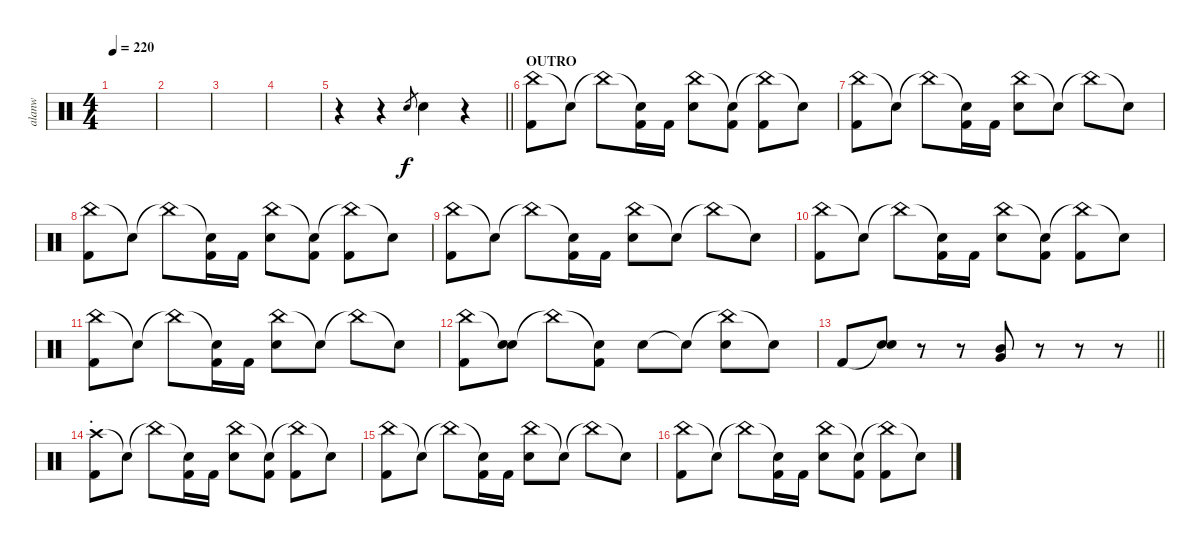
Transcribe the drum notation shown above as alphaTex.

\track ("alanw" "alanw") {instrument percussion}
\staff {score}
\articulation defaults
\ts (4 4)
\tempo 220
\clef neutral
\ks c
|
|
|
|
\barLineRight lightlight
r.4 r.4 "Electric Snare (hit)".8{gr} "Electric Snare (hit)".4 r.4 |
\section ("" "OUTRO")
("China (hit)" "Kick (hit) 2").8 "Snare (hit)"{t}.8 "China (hit)"{t}.8 ("Snare (hit)"{t} "Kick (hit) 2").16 "Kick (hit) 2".16 ("China (hit)" "Electric Snare (hit)").8 ("Snare (hit)"{t} "Kick (hit) 2").8 ("China (hit)"{t} "Kick (hit) 2").8 "Snare (hit)"{t}.8 |
("China (hit)" "Kick (hit) 2").8 "Snare (hit)"{t}.8 "China (hit)"{t}.8 ("Snare (hit)"{t} "Kick (hit) 2").16 "Kick (hit) 2".16 ("China (hit)" "Electric Snare (hit)").8 "Snare (hit)"{t}.8 "China (hit)"{t}.8 "Snare (hit)"{t}.8 |
("China (hit)" "Kick (hit) 2").8 "Snare (hit)"{t}.8 "China (hit)"{t}.8 ("Snare (hit)"{t} "Kick (hit) 2").16 "Kick (hit) 2".16 ("China (hit)" "Electric Snare (hit)").8 ("Snare (hit)"{t} "Kick (hit) 2").8 ("China (hit)"{t} "Kick (hit) 2").8 "Snare (hit)"{t}.8 |
("China (hit)" "Kick (hit) 2").8 "Snare (hit)"{t}.8 "China (hit)"{t}.8 ("Snare (hit)"{t} "Kick (hit) 2").16 "Kick (hit) 2".16 ("China (hit)" "Electric Snare (hit)").8 "Snare (hit)"{t}.8 "China (hit)"{t}.8 "Snare (hit)"{t}.8 |
("China (hit)" "Kick (hit) 2").8 "Snare (hit)"{t}.8 "China (hit)"{t}.8 ("Snare (hit)"{t} "Kick (hit) 2").16 "Kick (hit) 2".16 ("China (hit)" "Electric Snare (hit)").8 ("Snare (hit)"{t} "Kick (hit) 2").8 ("China (hit)"{t} "Kick (hit) 2").8 "Snare (hit)"{t}.8 |
("China (hit)" "Kick (hit) 2").8 "Snare (hit)"{t}.8 "China (hit)"{t}.8 ("Snare (hit)"{t} "Kick (hit) 2").16 "Kick (hit) 2".16 ("China (hit)" "Electric Snare (hit)").8 "Snare (hit)"{t}.8 "China (hit)"{t}.8 "Snare (hit)"{t}.8 |
("China (hit)" "Kick (hit) 2").8 ("Snare (hit)"{t} "Electric Snare (hit)").8 "China (hit)"{t}.8 ("Snare (hit)"{t} "Kick (hit) 2").8 "Electric Snare (hit)".8 "Snare (hit)"{t}.8 ("China (hit)"{t} "Electric Snare (hit)").8 "Snare (hit)"{t}.8 |
\barLineRight lightlight "Kick (hit) 2".8
("Snare (hit)"{t} "Electric Snare (hit)").8 r.8 r.8 ("Mid Tom (hit)" "Very Low Tom (hit)").8 r.8 r.8 r.8 |
\section ("" ".")
("Crash high (hit)" "Kick (hit) 2").8 "Snare (hit)"{t}.8 "China (hit)"{t}.8 ("Snare (hit)"{t} "Kick (hit) 2").16 "Kick (hit) 2".16 ("China (hit)" "Electric Snare (hit)").8 ("Snare (hit)"{t} "Kick (hit) 2").8 ("China (hit)"{t} "Kick (hit) 2").8 "Snare (hit)"{t}.8 |
("China (hit)" "Kick (hit) 2").8 "Snare (hit)"{t}.8 "China (hit)"{t}.8 ("Snare (hit)"{t} "Kick (hit) 2").16 "Kick (hit) 2".16 ("China (hit)" "Electric Snare (hit)").8 "Snare (hit)"{t}.8 "China (hit)"{t}.8 "Snare (hit)"{t}.8 |
("China (hit)" "Kick (hit) 2").8 "Snare (hit)"{t}.8 "China (hit)"{t}.8 ("Snare (hit)"{t} "Kick (hit) 2").16 "Kick (hit) 2".16 ("China (hit)" "Electric Snare (hit)").8 ("Snare (hit)"{t} "Kick (hit) 2").8 ("China (hit)"{t} "Kick (hit) 2").8 "Snare (hit)"{t}.8
